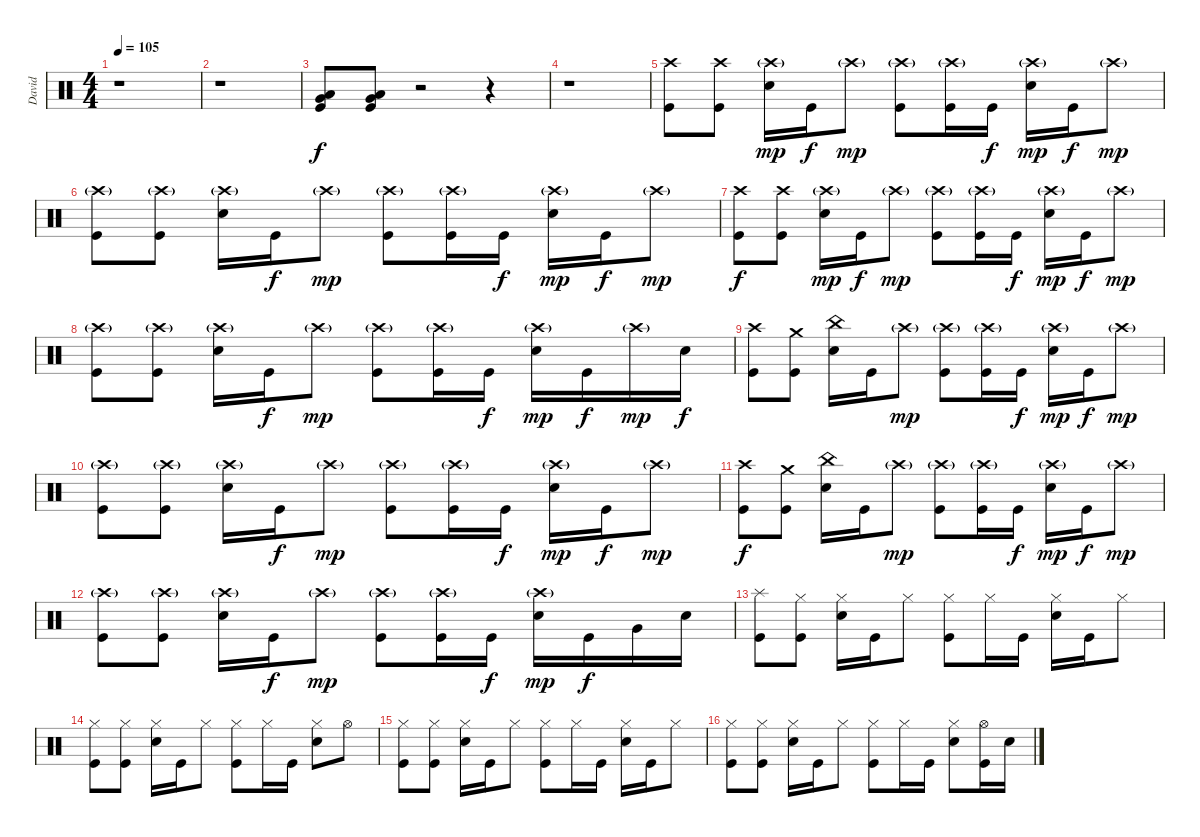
\track ("David" "David") {instrument percussion}
\staff {score}
\articulation defaults
\ts (4 4)
\tempo 105
\clef neutral
\ks c
r.1{dy f} |
r.1 |
("Low Floor Tom (hit)" "Very Low Tom (hit)" "Kick (hit)").8 ("Kick (hit)" "Low Floor Tom (hit)" "Very Low Tom (hit)").8 r.2 r.4 |
r.1 |
("Crash high (hit)" "Kick (hit)").8 ("Kick (hit)" "Crash high (hit)").8 ("Snare (hit) 2" "Crash high (hit)"{g}).16{dy mp} "Kick (hit)".16{dy f} "Crash high (hit)"{g}.8{dy mp} ("Crash high (hit)"{g} "Kick (hit)").8 ("Kick (hit)" "Crash high (hit)"{g}).16 "Kick (hit)".16{dy f} ("Snare (hit) 2" "Crash high (hit)"{g}).16{dy mp} "Kick (hit)".16{dy f} "Crash high (hit)"{g}.8{dy mp} |
("Crash high (hit)"{g} "Kick (hit)").8 ("Kick (hit)" "Crash high (hit)"{g}).8 ("Snare (hit) 2" "Crash high (hit)"{g}).16 "Kick (hit)".16{dy f} "Crash high (hit)"{g}.8{dy mp} ("Crash high (hit)"{g} "Kick (hit)").8 ("Crash high (hit)"{g} "Kick (hit)").16 "Kick (hit)".16{dy f} ("Crash high (hit)"{g} "Snare (hit) 2").16{dy mp} "Kick (hit)".16{dy f} "Crash high (hit)"{g}.8{dy mp} |
("Crash high (hit)" "Kick (hit)").8{dy f} ("Kick (hit)" "Crash high (hit)").8 ("Snare (hit) 2" "Crash high (hit)"{g}).16{dy mp} "Kick (hit)".16{dy f} "Crash high (hit)"{g}.8{dy mp} ("Crash high (hit)"{g} "Kick (hit)").8 ("Crash high (hit)"{g} "Kick (hit)").16 "Kick (hit)".16{dy f} ("Crash high (hit)"{g} "Snare (hit) 2").16{dy mp} "Kick (hit)".16{dy f} "Crash high (hit)"{g}.8{dy mp} |
("Crash high (hit)"{g} "Kick (hit)").8 ("Kick (hit)" "Crash high (hit)"{g}).8 ("Snare (hit) 2" "Crash high (hit)"{g}).16 "Kick (hit)".16{dy f} "Crash high (hit)"{g}.8{dy mp} ("Crash high (hit)"{g} "Kick (hit)").8 ("Crash high (hit)"{g} "Kick (hit)").16 "Kick (hit)".16{dy f} ("Crash high (hit)"{g} "Snare (hit) 2").16{dy mp} "Kick (hit)".16{dy f} "Crash high (hit)"{g}.16{dy mp} "Snare (hit) 2".16{dy f} |
("Crash high (hit)" "Kick (hit)").8 ("Kick (hit)" "Crash medium (hit)").8 ("Snare (hit) 2" "China (hit)").16 "Kick (hit)".16 "Crash high (hit)"{g}.8{dy mp} ("Crash high (hit)"{g} "Kick (hit)").8 ("Crash high (hit)"{g} "Kick (hit)").16 "Kick (hit)".16{dy f} ("Crash high (hit)"{g} "Snare (hit) 2").16{dy mp} "Kick (hit)".16{dy f} "Crash high (hit)"{g}.8{dy mp} |
("Crash high (hit)"{g} "Kick (hit)").8 ("Kick (hit)" "Crash high (hit)"{g}).8 ("Snare (hit) 2" "Crash high (hit)"{g}).16 "Kick (hit)".16{dy f} "Crash high (hit)"{g}.8{dy mp} ("Crash high (hit)"{g} "Kick (hit)").8 ("Crash high (hit)"{g} "Kick (hit)").16 "Kick (hit)".16{dy f} ("Crash high (hit)"{g} "Snare (hit) 2").16{dy mp} "Kick (hit)".16{dy f} "Crash high (hit)"{g}.8{dy mp} |
("Crash high (hit)" "Kick (hit)").8{dy f} ("Kick (hit)" "Crash medium (hit)").8 ("Snare (hit) 2" "China (hit)").16 "Kick (hit)".16 "Crash high (hit)"{g}.8{dy mp} ("Crash high (hit)"{g} "Kick (hit)").8 ("Crash high (hit)"{g} "Kick (hit)").16 "Kick (hit)".16{dy f} ("Crash high (hit)"{g} "Snare (hit) 2").16{dy mp} "Kick (hit)".16{dy f} "Crash high (hit)"{g}.8{dy mp} |
("Crash high (hit)"{g} "Kick (hit)").8 ("Kick (hit)" "Crash high (hit)"{g}).8 ("Snare (hit) 2" "Crash high (hit)"{g}).16 "Kick (hit)".16{dy f} "Crash high (hit)"{g}.8{dy mp} ("Crash high (hit)"{g} "Kick (hit)").8 ("Crash high (hit)"{g} "Kick (hit)").16 "Kick (hit)".16{dy f} ("Crash high (hit)"{g} "Snare (hit) 2").16{dy mp} "Kick (hit)".16{dy f} "Very Low Tom (hit)".16 "Snare (hit) 2".16 |
("Splash (hit)" "Kick (hit)").8 ("Hi-Hat (closed)" "Kick (hit)").8 ("Hi-Hat (closed)" "Snare (hit) 2").16 "Kick (hit)".16 "Hi-Hat (closed)".8 ("Hi-Hat (closed)" "Kick (hit)").8 "Hi-Hat (closed)".16 "Kick (hit)".16 ("Hi-Hat (closed)" "Snare (hit) 2").16 "Kick (hit)".16 "Hi-Hat (closed)".8 |
("Hi-Hat (closed)" "Kick (hit)").8 ("Hi-Hat (closed)" "Kick (hit)").8 ("Hi-Hat (closed)" "Snare (hit) 2").16 "Kick (hit)".16 "Hi-Hat (closed)".8 ("Hi-Hat (closed)" "Kick (hit)").8 "Hi-Hat (closed)".16 "Kick (hit)".16 ("Hi-Hat (closed)" "Snare (hit) 2").8 "Hi-Hat (open)".8 |
("Hi-Hat (closed)" "Kick (hit)").8 ("Hi-Hat (closed)" "Kick (hit)").8 ("Hi-Hat (closed)" "Snare (hit) 2").16 "Kick (hit)".16 "Hi-Hat (closed)".8 ("Hi-Hat (closed)" "Kick (hit)").8 "Hi-Hat (closed)".16 "Kick (hit)".16 ("Hi-Hat (closed)" "Snare (hit) 2").16 "Kick (hit)".16 "Hi-Hat (closed)".8 |
("Hi-Hat (closed)" "Kick (hit)").8 ("Hi-Hat (closed)" "Kick (hit)").8 ("Hi-Hat (closed)" "Snare (hit) 2").16 "Kick (hit)".16 "Hi-Hat (closed)".8 ("Hi-Hat (closed)" "Kick (hit)").8 "Hi-Hat (closed)".16 "Kick (hit)".16 ("Hi-Hat (closed)" "Snare (hit) 2").8 ("Kick (hit)" "Hi-Hat (open)").16 "Snare (hit) 2".16
